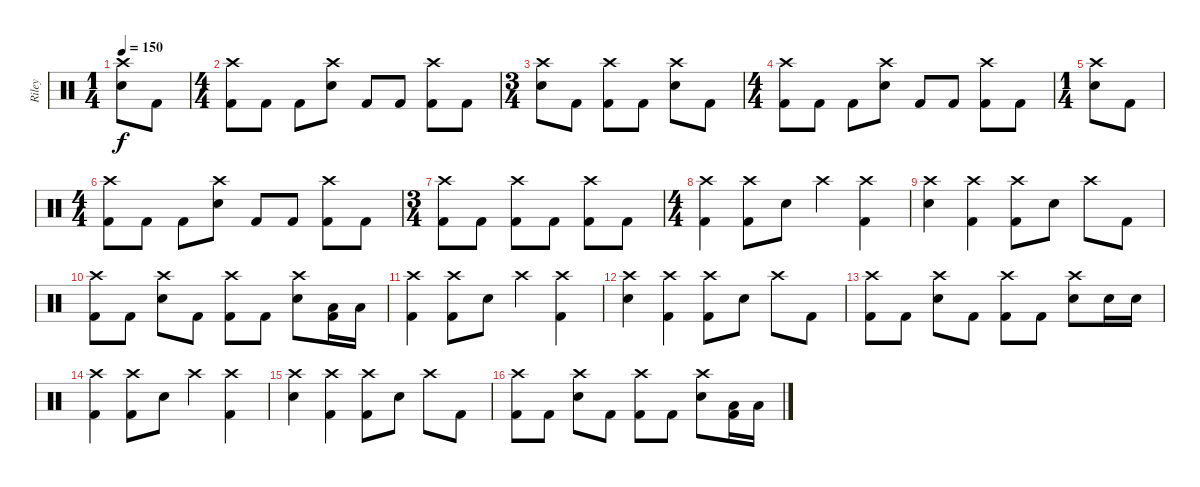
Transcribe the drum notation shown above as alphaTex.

\track ("Riley" "Riley") {instrument percussion}
\staff {score}
\articulation defaults
\ts (1 4)
\tempo 150
\clef neutral
\ks c
("Crash high (hit)" "Electric Snare (hit)").8{dy f} "Kick (hit) 2".8 |
\ts (4 4)
("Crash high (hit)" "Kick (hit) 2").8 "Kick (hit) 2".8 "Kick (hit) 2".8 ("Crash high (hit)" "Electric Snare (hit)").8 "Kick (hit) 2".8 "Kick (hit) 2".8 ("Crash high (hit)" "Kick (hit) 2").8 "Kick (hit) 2".8 |
\ts (3 4)
("Crash high (hit)" "Electric Snare (hit)").8 "Kick (hit) 2".8 ("Crash high (hit)" "Kick (hit) 2").8 "Kick (hit) 2".8 ("Crash high (hit)" "Electric Snare (hit)").8 "Kick (hit) 2".8 |
\ts (4 4)
("Crash high (hit)" "Kick (hit) 2").8 "Kick (hit) 2".8 "Kick (hit) 2".8 ("Crash high (hit)" "Electric Snare (hit)").8 "Kick (hit) 2".8 "Kick (hit) 2".8 ("Crash high (hit)" "Kick (hit) 2").8 "Kick (hit) 2".8 |
\ts (1 4)
("Crash high (hit)" "Electric Snare (hit)").8 "Kick (hit) 2".8 |
\ts (4 4)
("Crash high (hit)" "Kick (hit) 2").8 "Kick (hit) 2".8 "Kick (hit) 2".8 ("Crash high (hit)" "Electric Snare (hit)").8 "Kick (hit) 2".8 "Kick (hit) 2".8 ("Crash high (hit)" "Kick (hit) 2").8 "Kick (hit) 2".8 |
\ts (3 4)
("Crash high (hit)" "Kick (hit) 2").8 "Kick (hit) 2".8 ("Crash high (hit)" "Kick (hit) 2").8 "Kick (hit) 2".8 ("Crash high (hit)" "Kick (hit) 2").8 "Kick (hit) 2".8 |
\ts (4 4)
("Crash high (hit)" "Kick (hit) 2").4 ("Crash high (hit)" "Kick (hit) 2").8 "Electric Snare (hit)".8 "Crash high (hit)".4 ("Crash high (hit)" "Kick (hit) 2").4 |
("Crash high (hit)" "Electric Snare (hit)").4 ("Crash high (hit)" "Kick (hit) 2").4 ("Crash high (hit)" "Kick (hit) 2").8 "Electric Snare (hit)".8 "Crash high (hit)".8 "Kick (hit) 2".8 |
("Crash high (hit)" "Kick (hit) 2").8 "Kick (hit) 2".8 ("Crash high (hit)" "Electric Snare (hit)").8 "Kick (hit) 2".8 ("Crash high (hit)" "Kick (hit) 2").8 "Kick (hit) 2".8 ("Crash high (hit)" "Electric Snare (hit)").8 ("Low Floor Tom (hit)" "Kick (hit) 2").16 "Low Floor Tom (hit)".16 |
("Crash high (hit)" "Kick (hit) 2").4 ("Crash high (hit)" "Kick (hit) 2").8 "Electric Snare (hit)".8 "Crash high (hit)".4 ("Crash high (hit)" "Kick (hit) 2").4 |
("Crash high (hit)" "Electric Snare (hit)").4 ("Crash high (hit)" "Kick (hit) 2").4 ("Crash high (hit)" "Kick (hit) 2").8 "Electric Snare (hit)".8 "Crash high (hit)".8 "Kick (hit) 2".8 |
("Crash high (hit)" "Kick (hit) 2").8 "Kick (hit) 2".8 ("Crash high (hit)" "Electric Snare (hit)").8 "Kick (hit) 2".8 ("Crash high (hit)" "Kick (hit) 2").8 "Kick (hit) 2".8 ("Crash high (hit)" "Electric Snare (hit)").8 "Electric Snare (hit)".16 "Electric Snare (hit)".16 |
("Crash high (hit)" "Kick (hit) 2").4 ("Crash high (hit)" "Kick (hit) 2").8 "Electric Snare (hit)".8 "Crash high (hit)".4 ("Crash high (hit)" "Kick (hit) 2").4 |
("Crash high (hit)" "Electric Snare (hit)").4 ("Crash high (hit)" "Kick (hit) 2").4 ("Crash high (hit)" "Kick (hit) 2").8 "Electric Snare (hit)".8 "Crash high (hit)".8 "Kick (hit) 2".8 |
("Crash high (hit)" "Kick (hit) 2").8 "Kick (hit) 2".8 ("Crash high (hit)" "Electric Snare (hit)").8 "Kick (hit) 2".8 ("Crash high (hit)" "Kick (hit) 2").8 "Kick (hit) 2".8 ("Crash high (hit)" "Electric Snare (hit)").8 ("Low Floor Tom (hit)" "Kick (hit) 2").16 "Low Floor Tom (hit)".16
